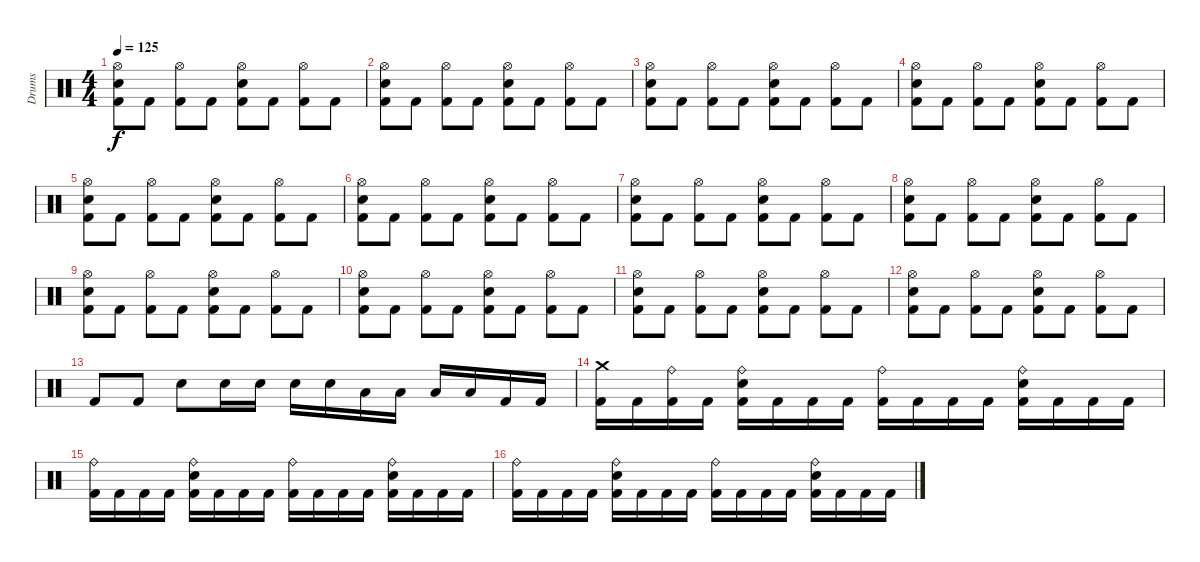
\track ("Drums" "Drums") {instrument percussion}
\staff {score}
\articulation defaults
\ts (4 4)
\tempo 125
\clef neutral
\ks c
("Hi-Hat (open)" "Electric Snare (hit)" "Kick (hit) 2").8{dy f} "Kick (hit) 2".8 ("Hi-Hat (open)" "Kick (hit) 2").8 "Kick (hit) 2".8 ("Hi-Hat (open)" "Electric Snare (hit)" "Kick (hit) 2").8 "Kick (hit) 2".8 ("Hi-Hat (open)" "Kick (hit) 2").8 "Kick (hit) 2".8 |
("Hi-Hat (open)" "Electric Snare (hit)" "Kick (hit) 2").8 "Kick (hit) 2".8 ("Hi-Hat (open)" "Kick (hit) 2").8 "Kick (hit) 2".8 ("Hi-Hat (open)" "Electric Snare (hit)" "Kick (hit) 2").8 "Kick (hit) 2".8 ("Hi-Hat (open)" "Kick (hit) 2").8 "Kick (hit) 2".8 |
("Hi-Hat (open)" "Electric Snare (hit)" "Kick (hit) 2").8 "Kick (hit) 2".8 ("Hi-Hat (open)" "Kick (hit) 2").8 "Kick (hit) 2".8 ("Hi-Hat (open)" "Electric Snare (hit)" "Kick (hit) 2").8 "Kick (hit) 2".8 ("Hi-Hat (open)" "Kick (hit) 2").8 "Kick (hit) 2".8 |
("Hi-Hat (open)" "Electric Snare (hit)" "Kick (hit) 2").8 "Kick (hit) 2".8 ("Hi-Hat (open)" "Kick (hit) 2").8 "Kick (hit) 2".8 ("Hi-Hat (open)" "Electric Snare (hit)" "Kick (hit) 2").8 "Kick (hit) 2".8 ("Hi-Hat (open)" "Kick (hit) 2").8 "Kick (hit) 2".8 |
("Hi-Hat (open)" "Electric Snare (hit)" "Kick (hit) 2").8 "Kick (hit) 2".8 ("Hi-Hat (open)" "Kick (hit) 2").8 "Kick (hit) 2".8 ("Hi-Hat (open)" "Electric Snare (hit)" "Kick (hit) 2").8 "Kick (hit) 2".8 ("Hi-Hat (open)" "Kick (hit) 2").8 "Kick (hit) 2".8 |
("Hi-Hat (open)" "Electric Snare (hit)" "Kick (hit) 2").8 "Kick (hit) 2".8 ("Hi-Hat (open)" "Kick (hit) 2").8 "Kick (hit) 2".8 ("Hi-Hat (open)" "Electric Snare (hit)" "Kick (hit) 2").8 "Kick (hit) 2".8 ("Hi-Hat (open)" "Kick (hit) 2").8 "Kick (hit) 2".8 |
("Hi-Hat (open)" "Electric Snare (hit)" "Kick (hit) 2").8 "Kick (hit) 2".8 ("Hi-Hat (open)" "Kick (hit) 2").8 "Kick (hit) 2".8 ("Hi-Hat (open)" "Electric Snare (hit)" "Kick (hit) 2").8 "Kick (hit) 2".8 ("Hi-Hat (open)" "Kick (hit) 2").8 "Kick (hit) 2".8 |
("Hi-Hat (open)" "Electric Snare (hit)" "Kick (hit) 2").8 "Kick (hit) 2".8 ("Hi-Hat (open)" "Kick (hit) 2").8 "Kick (hit) 2".8 ("Hi-Hat (open)" "Electric Snare (hit)" "Kick (hit) 2").8 "Kick (hit) 2".8 ("Hi-Hat (open)" "Kick (hit) 2").8 "Kick (hit) 2".8 |
("Hi-Hat (open)" "Electric Snare (hit)" "Kick (hit) 2").8 "Kick (hit) 2".8 ("Hi-Hat (open)" "Kick (hit) 2").8 "Kick (hit) 2".8 ("Hi-Hat (open)" "Electric Snare (hit)" "Kick (hit) 2").8 "Kick (hit) 2".8 ("Hi-Hat (open)" "Kick (hit) 2").8 "Kick (hit) 2".8 |
("Hi-Hat (open)" "Electric Snare (hit)" "Kick (hit) 2").8 "Kick (hit) 2".8 ("Hi-Hat (open)" "Kick (hit) 2").8 "Kick (hit) 2".8 ("Hi-Hat (open)" "Electric Snare (hit)" "Kick (hit) 2").8 "Kick (hit) 2".8 ("Hi-Hat (open)" "Kick (hit) 2").8 "Kick (hit) 2".8 |
("Hi-Hat (open)" "Electric Snare (hit)" "Kick (hit) 2").8 "Kick (hit) 2".8 ("Hi-Hat (open)" "Kick (hit) 2").8 "Kick (hit) 2".8 ("Hi-Hat (open)" "Electric Snare (hit)" "Kick (hit) 2").8 "Kick (hit) 2".8 ("Hi-Hat (open)" "Kick (hit) 2").8 "Kick (hit) 2".8 |
("Hi-Hat (open)" "Electric Snare (hit)" "Kick (hit) 2").8 "Kick (hit) 2".8 ("Hi-Hat (open)" "Kick (hit) 2").8 "Kick (hit) 2".8 ("Hi-Hat (open)" "Electric Snare (hit)" "Kick (hit) 2").8 "Kick (hit) 2".8 ("Hi-Hat (open)" "Kick (hit) 2").8 "Kick (hit) 2".8 |
"Kick (hit) 2".8 "Kick (hit) 2".8 "Electric Snare (hit)".8 "Electric Snare (hit)".16 "Electric Snare (hit)".16 "Electric Snare (hit)".16 "Electric Snare (hit)".16 "Low Tom (hit)".16 "Low Tom (hit)".16 "Low Floor Tom (hit)".16 "Low Floor Tom (hit)".16 "Kick (hit) 2".16 "Kick (hit) 2".16 |
("Crash medium (hit)" "Kick (hit) 2").16 "Kick (hit) 2".16 ("Ride (bell)" "Kick (hit) 2").16 "Kick (hit) 2".16 ("Ride (bell)" "Electric Snare (hit)" "Kick (hit) 2").16 "Kick (hit) 2".16 "Kick (hit) 2".16 "Kick (hit) 2".16 ("Ride (bell)" "Kick (hit) 2").16 "Kick (hit) 2".16 "Kick (hit) 2".16 "Kick (hit) 2".16 ("Ride (bell)" "Electric Snare (hit)" "Kick (hit) 2").16 "Kick (hit) 2".16 "Kick (hit) 2".16 "Kick (hit) 2".16 |
("Ride (bell)" "Kick (hit) 2").16 "Kick (hit) 2".16 "Kick (hit) 2".16 "Kick (hit) 2".16 ("Ride (bell)" "Electric Snare (hit)" "Kick (hit) 2").16 "Kick (hit) 2".16 "Kick (hit) 2".16 "Kick (hit) 2".16 ("Ride (bell)" "Kick (hit) 2").16 "Kick (hit) 2".16 "Kick (hit) 2".16 "Kick (hit) 2".16 ("Ride (bell)" "Electric Snare (hit)" "Kick (hit) 2").16 "Kick (hit) 2".16 "Kick (hit) 2".16 "Kick (hit) 2".16 |
("Ride (bell)" "Kick (hit) 2").16 "Kick (hit) 2".16 "Kick (hit) 2".16 "Kick (hit) 2".16 ("Ride (bell)" "Electric Snare (hit)" "Kick (hit) 2").16 "Kick (hit) 2".16 "Kick (hit) 2".16 "Kick (hit) 2".16 ("Ride (bell)" "Kick (hit) 2").16 "Kick (hit) 2".16 "Kick (hit) 2".16 "Kick (hit) 2".16 ("Ride (bell)" "Electric Snare (hit)" "Kick (hit) 2").16 "Kick (hit) 2".16 "Kick (hit) 2".16 "Kick (hit) 2".16
